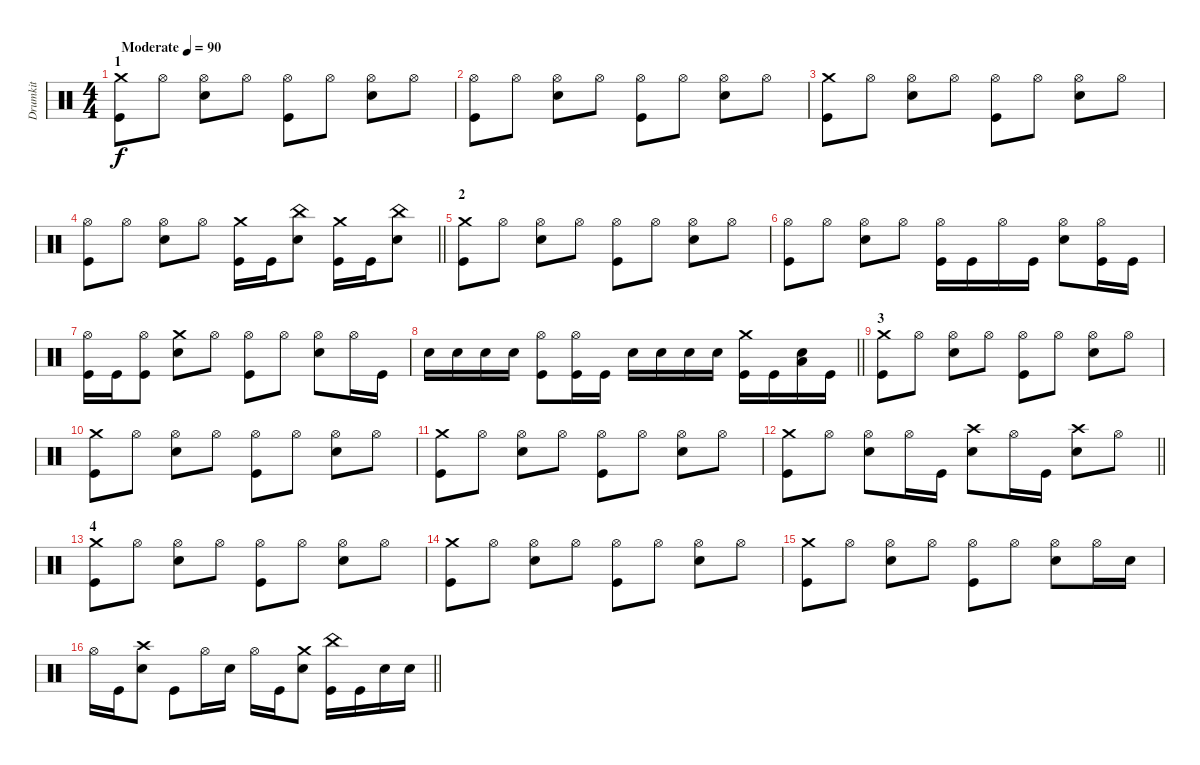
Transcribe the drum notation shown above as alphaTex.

\track ("Drumkit" "Drumkit") {instrument percussion}
\staff {score}
\articulation defaults
\ts (4 4)
\section ("" "1")
\tempo (90 "Moderate")
\clef neutral
\ks c
("Crash medium (hit)" "Kick (hit)").8{dy f} "Hi-Hat (open)".8 ("Hi-Hat (open)" "Snare (hit) 2").8 "Hi-Hat (open)".8 ("Hi-Hat (open)" "Kick (hit)").8 "Hi-Hat (open)".8 ("Hi-Hat (open)" "Snare (hit) 2").8 "Hi-Hat (open)".8 |
("Hi-Hat (open)" "Kick (hit)").8 "Hi-Hat (open)".8 ("Hi-Hat (open)" "Snare (hit) 2").8 "Hi-Hat (open)".8 ("Hi-Hat (open)" "Kick (hit)").8 "Hi-Hat (open)".8 ("Hi-Hat (open)" "Snare (hit) 2").8 "Hi-Hat (open)".8 |
("Crash medium (hit)" "Kick (hit)").8 "Hi-Hat (open)".8 ("Hi-Hat (open)" "Snare (hit) 2").8 "Hi-Hat (open)".8 ("Hi-Hat (open)" "Kick (hit)").8 "Hi-Hat (open)".8 ("Hi-Hat (open)" "Snare (hit) 2").8 "Hi-Hat (open)".8 |
\barLineRight lightlight
("Hi-Hat (open)" "Kick (hit)").8 "Hi-Hat (open)".8 ("Hi-Hat (open)" "Snare (hit) 2").8 "Hi-Hat (open)".8 ("Crash medium (hit)" "Kick (hit)").16 "Kick (hit)".16 ("China (hit)" "Snare (hit) 2").8 ("Crash medium (hit)" "Kick (hit)").16 "Kick (hit)".16 ("China (hit)" "Snare (hit) 2").8 |
\section ("" "2")
("Crash medium (hit)" "Kick (hit)").8 "Hi-Hat (open)".8 ("Hi-Hat (open)" "Snare (hit) 2").8 "Hi-Hat (open)".8 ("Hi-Hat (open)" "Kick (hit)").8 "Hi-Hat (open)".8 ("Hi-Hat (open)" "Snare (hit) 2").8 "Hi-Hat (open)".8 |
("Hi-Hat (open)" "Kick (hit)").8 "Hi-Hat (open)".8 ("Hi-Hat (open)" "Snare (hit) 2").8 "Hi-Hat (open)".8 ("Hi-Hat (open)" "Kick (hit)").16 "Kick (hit)".16 "Hi-Hat (open)".16 "Kick (hit)".16 ("Hi-Hat (open)" "Snare (hit) 2").8 ("Hi-Hat (open)" "Kick (hit)").16 "Kick (hit)".16 |
("Hi-Hat (open)" "Kick (hit)").16 "Kick (hit)".16 ("Hi-Hat (open)" "Kick (hit)").8 ("Crash medium (hit)" "Snare (hit) 2").8 "Hi-Hat (open)".8 ("Hi-Hat (open)" "Kick (hit)").8 "Hi-Hat (open)".8 ("Hi-Hat (open)" "Snare (hit) 2").8 "Hi-Hat (open)".16 "Kick (hit)".16 |
\barLineRight lightlight "Snare (hit) 2".16 "Snare (hit) 2".16 "Snare (hit) 2".16 "Snare (hit) 2".16
("Hi-Hat (open)" "Kick (hit)").8 ("Hi-Hat (open)" "Kick (hit)").16 "Kick (hit)".16 "Snare (hit) 2".16 "Snare (hit) 2".16 "Snare (hit) 2".16 "Snare (hit) 2".16 ("Crash medium (hit)" "Kick (hit)").16 "Kick (hit)".16 ("Snare (hit) 2" "Low Tom (hit)").16 "Kick (hit)".16 |
\section ("" "3")
("Crash medium (hit)" "Kick (hit)").8 "Hi-Hat (open)".8 ("Hi-Hat (open)" "Snare (hit) 2").8 "Hi-Hat (open)".8 ("Hi-Hat (open)" "Kick (hit)").8 "Hi-Hat (open)".8 ("Hi-Hat (open)" "Snare (hit) 2").8 "Hi-Hat (open)".8 |
("Crash medium (hit)" "Kick (hit)").8 "Hi-Hat (open)".8 ("Hi-Hat (open)" "Snare (hit) 2").8 "Hi-Hat (open)".8 ("Hi-Hat (open)" "Kick (hit)").8 "Hi-Hat (open)".8 ("Hi-Hat (open)" "Snare (hit) 2").8 "Hi-Hat (open)".8 |
("Crash medium (hit)" "Kick (hit)").8 "Hi-Hat (open)".8 ("Hi-Hat (open)" "Snare (hit) 2").8 "Hi-Hat (open)".8 ("Hi-Hat (open)" "Kick (hit)").8 "Hi-Hat (open)".8 ("Hi-Hat (open)" "Snare (hit) 2").8 "Hi-Hat (open)".8 |
\barLineRight lightlight
("Crash medium (hit)" "Kick (hit)").8 "Hi-Hat (open)".8 ("Hi-Hat (open)" "Snare (hit) 2").8 "Hi-Hat (open)".16 "Kick (hit)".16 ("Crash high (hit)" "Snare (hit) 2").8 "Hi-Hat (open)".16 "Kick (hit)".16 ("Crash high (hit)" "Snare (hit) 2").8 "Hi-Hat (open)".8 |
\section ("" "4")
("Crash medium (hit)" "Kick (hit)").8 "Hi-Hat (open)".8 ("Hi-Hat (open)" "Snare (hit) 2").8 "Hi-Hat (open)".8 ("Hi-Hat (open)" "Kick (hit)").8 "Hi-Hat (open)".8 ("Hi-Hat (open)" "Snare (hit) 2").8 "Hi-Hat (open)".8 |
("Crash medium (hit)" "Kick (hit)").8 "Hi-Hat (open)".8 ("Hi-Hat (open)" "Snare (hit) 2").8 "Hi-Hat (open)".8 ("Hi-Hat (open)" "Kick (hit)").8 "Hi-Hat (open)".8 ("Hi-Hat (open)" "Snare (hit) 2").8 "Hi-Hat (open)".8 |
("Crash medium (hit)" "Kick (hit)").8 "Hi-Hat (open)".8 ("Hi-Hat (open)" "Snare (hit) 2").8 "Hi-Hat (open)".8 ("Hi-Hat (open)" "Kick (hit)").8 "Hi-Hat (open)".8 ("Hi-Hat (open)" "Snare (hit) 2").8 "Hi-Hat (open)".16 "Snare (hit) 2".16 |
\barLineRight lightlight "Hi-Hat (open)".16 "Kick (hit)".16
("Crash high (hit)" "Snare (hit) 2").8 "Kick (hit)".8 "Hi-Hat (open)".16 "Snare (hit) 2".16 "Hi-Hat (open)".16 "Kick (hit)".16 ("Crash medium (hit)" "Snare (hit) 2").8 ("China (hit)" "Kick (hit)").16 "Kick (hit)".16 "Snare (hit) 2".16 "Snare (hit) 2".16
